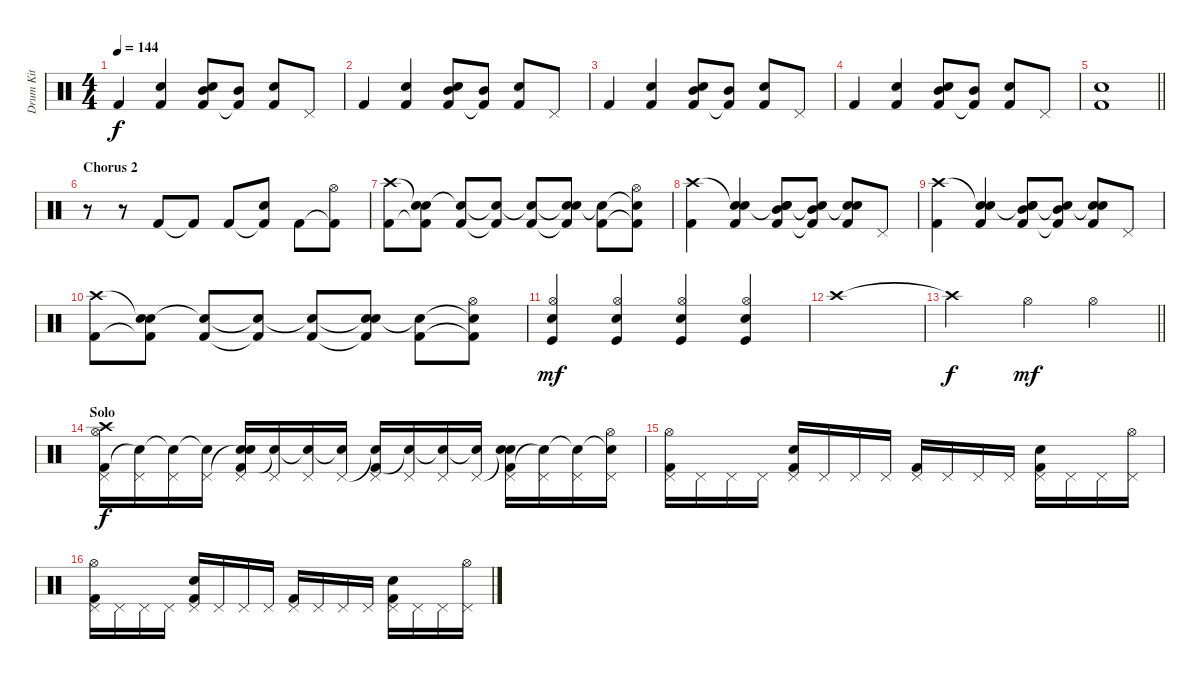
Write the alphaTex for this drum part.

\track ("Drum Kit" "Drum Kit") {instrument percussion}
\staff {score}
\articulation defaults
\ts (4 4)
\tempo 144
\clef neutral
\ks c "Kick (hit) 2".4{dy f}
("Kick (hit) 2" "Snare (hit) 2").4 ("Kick (hit) 2" "Electric Snare (hit)" "Mid Tom (hit)").8 ("Kick (hit) 2"{t} "Mid Tom (hit)").8 ("Kick (hit) 2" "Snare (hit) 2").8 "Pedal Hi-Hat (hit)".8 |
"Kick (hit) 2".4 ("Kick (hit) 2" "Snare (hit) 2").4 ("Kick (hit) 2" "Electric Snare (hit)" "Mid Tom (hit)").8 ("Kick (hit) 2"{t} "Mid Tom (hit)").8 ("Kick (hit) 2" "Snare (hit) 2").8 "Pedal Hi-Hat (hit)".8 |
"Kick (hit) 2".4 ("Kick (hit) 2" "Snare (hit) 2").4 ("Kick (hit) 2" "Electric Snare (hit)" "Mid Tom (hit)").8 ("Kick (hit) 2"{t} "Mid Tom (hit)").8 ("Kick (hit) 2" "Snare (hit) 2").8 "Pedal Hi-Hat (hit)".8 |
"Kick (hit) 2".4 ("Kick (hit) 2" "Snare (hit) 2").4 ("Kick (hit) 2" "Electric Snare (hit)" "Mid Tom (hit)").8 ("Kick (hit) 2"{t} "Mid Tom (hit)").8 ("Kick (hit) 2" "Snare (hit) 2").8 "Pedal Hi-Hat (hit)".8 |
\barLineRight lightlight
("Kick (hit) 2" "Electric Snare (hit)").1 |
\section ("" "Chorus 2")
r.8 r.8 "Kick (hit) 2".8 "Kick (hit) 2"{t}.8 "Kick (hit) 2".8 ("Kick (hit) 2"{t} "Electric Snare (hit)").8 "Kick (hit) 2".8 ("Kick (hit) 2"{t} "Hi-Hat (open)").8 |
("Kick (hit) 2" "Crash high (hit)").8 ("Kick (hit) 2"{t} "Snare (hit)"{t} "Electric Snare (hit)").8 ("Kick (hit) 2" "Snare (hit)"{t}).8 ("Kick (hit) 2"{t} "Snare (hit)"{t}).8 ("Kick (hit) 2" "Snare (hit)"{t}).8 ("Kick (hit) 2"{t} "Snare (hit)"{t} "Electric Snare (hit)").8 ("Kick (hit) 2" "Snare (hit)"{t}).8 ("Kick (hit) 2"{t} "Snare (hit)"{t} "Hi-Hat (open)").8 |
("Kick (hit) 2" "Crash high (hit)").4 ("Kick (hit) 2" "Snare (hit)"{t} "Snare (hit) 2").4 ("Kick (hit) 2" "Snare (hit)"{t} "Electric Snare (hit)" "Mid Tom (hit)").8 ("Kick (hit) 2"{t} "Snare (hit)"{t} "Mid Tom (hit)").8 ("Kick (hit) 2" "Snare (hit)"{t} "Snare (hit) 2").8 "Pedal Hi-Hat (hit)".8 |
("Kick (hit) 2" "Crash high (hit)").4 ("Kick (hit) 2" "Snare (hit)"{t} "Snare (hit) 2").4 ("Kick (hit) 2" "Snare (hit)"{t} "Electric Snare (hit)" "Mid Tom (hit)").8 ("Kick (hit) 2"{t} "Snare (hit)"{t} "Mid Tom (hit)").8 ("Kick (hit) 2" "Snare (hit)"{t} "Snare (hit) 2").8 "Pedal Hi-Hat (hit)".8 |
("Kick (hit) 2" "Crash high (hit)").8 ("Kick (hit) 2"{t} "Snare (hit)"{t} "Electric Snare (hit)").8 ("Kick (hit) 2" "Snare (hit)"{t}).8 ("Kick (hit) 2"{t} "Snare (hit)"{t}).8 ("Kick (hit) 2" "Snare (hit)"{t}).8 ("Kick (hit) 2"{t} "Snare (hit)"{t} "Electric Snare (hit)").8 ("Kick (hit) 2" "Snare (hit)"{t}).8 ("Kick (hit) 2"{t} "Snare (hit)"{t} "Hi-Hat (open)").8 |
("Kick (hit)" "Snare (hit) 2" "Hi-Hat (open)").4{dy mf} ("Kick (hit)" "Snare (hit) 2" "Hi-Hat (open)").4 ("Kick (hit)" "Snare (hit) 2" "Hi-Hat (open)").4 ("Kick (hit)" "Snare (hit) 2" "Hi-Hat (open)").4 |
"Crash high (hit)".1 |
\barLineRight lightlight "Crash high (hit)"{t}.2{dy f} "Hi-Hat (open)".4{dy mf} "Hi-Hat (open)".4
|
\section ("" "Solo")
("Kick (hit) 2" "Crash high (hit)" "Hi-Hat (open)" "Pedal Hi-Hat (hit)").16{dy f} ("Snare (hit)"{t} "Pedal Hi-Hat (hit)").16 ("Snare (hit)"{t} "Pedal Hi-Hat (hit)").16 ("Snare (hit)"{t} "Pedal Hi-Hat (hit)").16 ("Kick (hit) 2" "Snare (hit)"{t} "Electric Snare (hit)" "Pedal Hi-Hat (hit)").16 ("Snare (hit)"{t} "Pedal Hi-Hat (hit)").16 ("Snare (hit)"{t} "Pedal Hi-Hat (hit)").16 ("Snare (hit)"{t} "Pedal Hi-Hat (hit)").16 ("Kick (hit) 2" "Snare (hit)"{t} "Pedal Hi-Hat (hit)").16 ("Snare (hit)"{t} "Pedal Hi-Hat (hit)").16 ("Snare (hit)"{t} "Pedal Hi-Hat (hit)").16 ("Snare (hit)"{t} "Pedal Hi-Hat (hit)").16 ("Kick (hit) 2" "Snare (hit)"{t} "Electric Snare (hit)" "Pedal Hi-Hat (hit)").16 ("Snare (hit)"{t} "Pedal Hi-Hat (hit)").16 ("Snare (hit)"{t} "Pedal Hi-Hat (hit)").16 ("Snare (hit)"{t} "Hi-Hat (open)" "Pedal Hi-Hat (hit)").16 |
("Kick (hit) 2" "Hi-Hat (open)" "Pedal Hi-Hat (hit)").16 "Pedal Hi-Hat (hit)".16 "Pedal Hi-Hat (hit)".16 "Pedal Hi-Hat (hit)".16 ("Kick (hit) 2" "Electric Snare (hit)" "Pedal Hi-Hat (hit)").16 "Pedal Hi-Hat (hit)".16 "Pedal Hi-Hat (hit)".16 "Pedal Hi-Hat (hit)".16 ("Kick (hit) 2" "Pedal Hi-Hat (hit)").16 "Pedal Hi-Hat (hit)".16 "Pedal Hi-Hat (hit)".16 "Pedal Hi-Hat (hit)".16 ("Kick (hit) 2" "Electric Snare (hit)" "Pedal Hi-Hat (hit)").16 "Pedal Hi-Hat (hit)".16 "Pedal Hi-Hat (hit)".16 ("Hi-Hat (open)" "Pedal Hi-Hat (hit)").16 |
("Kick (hit) 2" "Hi-Hat (open)" "Pedal Hi-Hat (hit)").16 "Pedal Hi-Hat (hit)".16 "Pedal Hi-Hat (hit)".16 "Pedal Hi-Hat (hit)".16 ("Kick (hit) 2" "Electric Snare (hit)" "Pedal Hi-Hat (hit)").16 "Pedal Hi-Hat (hit)".16 "Pedal Hi-Hat (hit)".16 "Pedal Hi-Hat (hit)".16 ("Kick (hit) 2" "Pedal Hi-Hat (hit)").16 "Pedal Hi-Hat (hit)".16 "Pedal Hi-Hat (hit)".16 "Pedal Hi-Hat (hit)".16 ("Kick (hit) 2" "Electric Snare (hit)" "Pedal Hi-Hat (hit)").16 "Pedal Hi-Hat (hit)".16 "Pedal Hi-Hat (hit)".16 ("Hi-Hat (open)" "Pedal Hi-Hat (hit)").16
